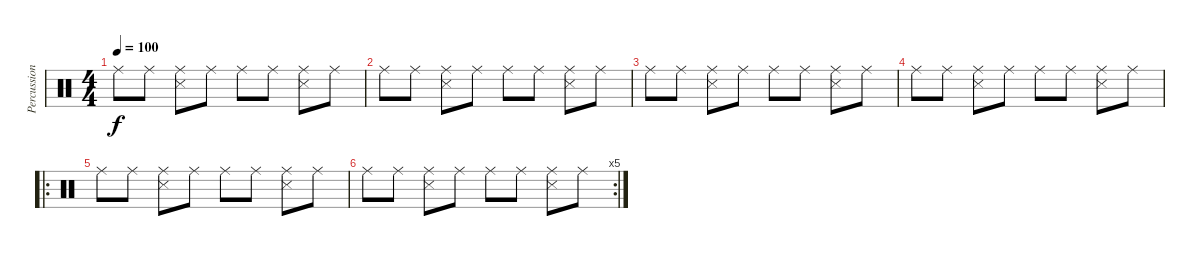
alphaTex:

\track ("Percussions (Moe Tucker)" "Percussion") {instrument percussion}
\staff {score}
\articulation defaults
\ts (4 4)
\tempo 100
\clef neutral
\ks c "Ride (middle)".8{dy f} "Ride (middle)".8
("Ride (middle)" "Snare (side stick) 3").8 "Ride (middle)".8 "Ride (middle)".8 "Ride (middle)".8 ("Ride (middle)" "Snare (side stick) 3").8 "Ride (middle)".8 |
"Ride (middle)".8 "Ride (middle)".8 ("Ride (middle)" "Snare (side stick) 3").8 "Ride (middle)".8 "Ride (middle)".8 "Ride (middle)".8 ("Ride (middle)" "Snare (side stick) 3").8 "Ride (middle)".8 |
"Ride (middle)".8 "Ride (middle)".8 ("Ride (middle)" "Snare (side stick) 3").8 "Ride (middle)".8 "Ride (middle)".8 "Ride (middle)".8 ("Ride (middle)" "Snare (side stick) 3").8 "Ride (middle)".8 |
"Ride (middle)".8 "Ride (middle)".8 ("Ride (middle)" "Snare (side stick) 3").8 "Ride (middle)".8 "Ride (middle)".8 "Ride (middle)".8 ("Ride (middle)" "Snare (side stick) 3").8 "Ride (middle)".8 |
\ro "Ride (middle)".8 "Ride (middle)".8
("Ride (middle)" "Snare (side stick) 3").8 "Ride (middle)".8 "Ride (middle)".8 "Ride (middle)".8 ("Ride (middle)" "Snare (side stick) 3").8 "Ride (middle)".8 |
\rc 5 "Ride (middle)".8 "Ride (middle)".8
("Ride (middle)" "Snare (side stick) 3").8 "Ride (middle)".8 "Ride (middle)".8 "Ride (middle)".8 ("Ride (middle)" "Snare (side stick) 3").8 "Ride (middle)".8
